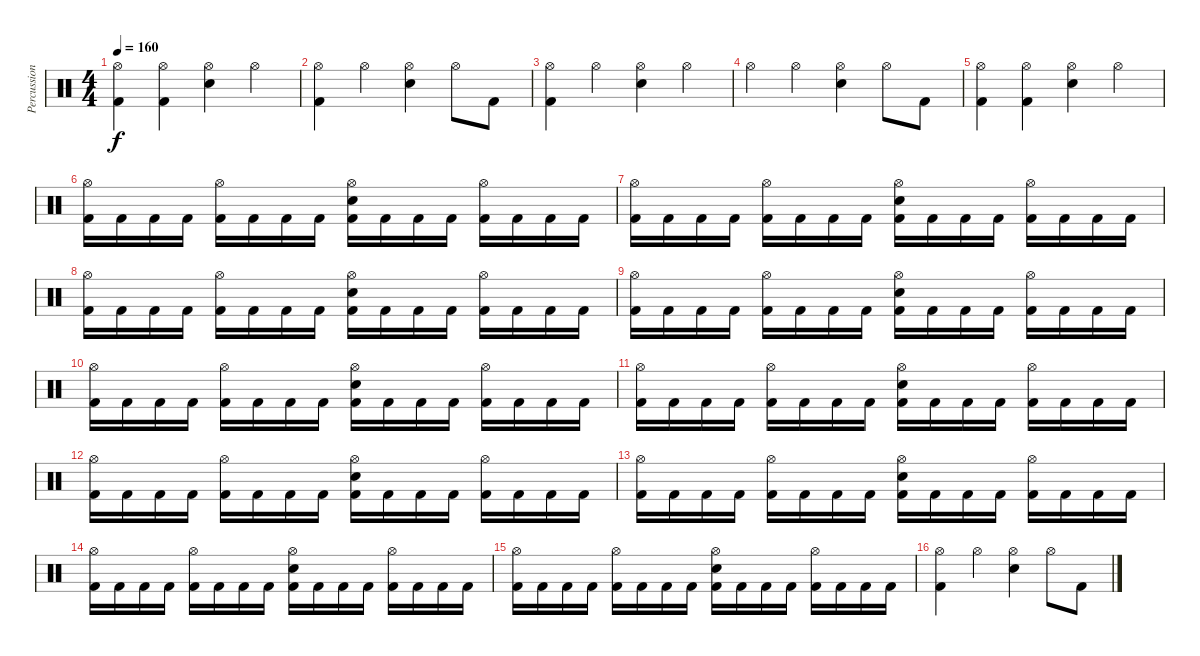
\track ("Percussion" "Percussion") {instrument percussion}
\staff {score}
\articulation defaults
\ts (4 4)
\tempo 160
\clef neutral
\ks c
("Hi-Hat (open)" "Kick (hit) 2").4{dy f} ("Hi-Hat (open)" "Kick (hit) 2").4 ("Hi-Hat (open)" "Snare (hit) 2").4 "Hi-Hat (open)".4 |
("Hi-Hat (open)" "Kick (hit) 2").4 "Hi-Hat (open)".4 ("Hi-Hat (open)" "Snare (hit) 2").4 "Hi-Hat (open)".8 "Kick (hit) 2".8 |
("Hi-Hat (open)" "Kick (hit) 2").4 "Hi-Hat (open)".4 ("Hi-Hat (open)" "Snare (hit) 2").4 "Hi-Hat (open)".4 |
"Hi-Hat (open)".4 "Hi-Hat (open)".4 ("Hi-Hat (open)" "Snare (hit) 2").4 "Hi-Hat (open)".8 "Kick (hit) 2".8 |
("Hi-Hat (open)" "Kick (hit) 2").4 ("Hi-Hat (open)" "Kick (hit) 2").4 ("Hi-Hat (open)" "Snare (hit) 2").4 "Hi-Hat (open)".4 |
("Hi-Hat (open)" "Kick (hit) 2").16 "Kick (hit) 2".16 "Kick (hit) 2".16 "Kick (hit) 2".16 ("Hi-Hat (open)" "Kick (hit) 2").16 "Kick (hit) 2".16 "Kick (hit) 2".16 "Kick (hit) 2".16 ("Hi-Hat (open)" "Kick (hit) 2" "Snare (hit) 2").16 "Kick (hit) 2".16 "Kick (hit) 2".16 "Kick (hit) 2".16 ("Hi-Hat (open)" "Kick (hit) 2").16 "Kick (hit) 2".16 "Kick (hit) 2".16 "Kick (hit) 2".16 |
("Hi-Hat (open)" "Kick (hit) 2").16 "Kick (hit) 2".16 "Kick (hit) 2".16 "Kick (hit) 2".16 ("Hi-Hat (open)" "Kick (hit) 2").16 "Kick (hit) 2".16 "Kick (hit) 2".16 "Kick (hit) 2".16 ("Hi-Hat (open)" "Kick (hit) 2" "Snare (hit) 2").16 "Kick (hit) 2".16 "Kick (hit) 2".16 "Kick (hit) 2".16 ("Hi-Hat (open)" "Kick (hit) 2").16 "Kick (hit) 2".16 "Kick (hit) 2".16 "Kick (hit) 2".16 |
("Hi-Hat (open)" "Kick (hit) 2").16 "Kick (hit) 2".16 "Kick (hit) 2".16 "Kick (hit) 2".16 ("Hi-Hat (open)" "Kick (hit) 2").16 "Kick (hit) 2".16 "Kick (hit) 2".16 "Kick (hit) 2".16 ("Hi-Hat (open)" "Kick (hit) 2" "Snare (hit) 2").16 "Kick (hit) 2".16 "Kick (hit) 2".16 "Kick (hit) 2".16 ("Hi-Hat (open)" "Kick (hit) 2").16 "Kick (hit) 2".16 "Kick (hit) 2".16 "Kick (hit) 2".16 |
("Hi-Hat (open)" "Kick (hit) 2").16 "Kick (hit) 2".16 "Kick (hit) 2".16 "Kick (hit) 2".16 ("Hi-Hat (open)" "Kick (hit) 2").16 "Kick (hit) 2".16 "Kick (hit) 2".16 "Kick (hit) 2".16 ("Hi-Hat (open)" "Kick (hit) 2" "Snare (hit) 2").16 "Kick (hit) 2".16 "Kick (hit) 2".16 "Kick (hit) 2".16 ("Hi-Hat (open)" "Kick (hit) 2").16 "Kick (hit) 2".16 "Kick (hit) 2".16 "Kick (hit) 2".16 |
("Hi-Hat (open)" "Kick (hit) 2").16 "Kick (hit) 2".16 "Kick (hit) 2".16 "Kick (hit) 2".16 ("Hi-Hat (open)" "Kick (hit) 2").16 "Kick (hit) 2".16 "Kick (hit) 2".16 "Kick (hit) 2".16 ("Hi-Hat (open)" "Kick (hit) 2" "Snare (hit) 2").16 "Kick (hit) 2".16 "Kick (hit) 2".16 "Kick (hit) 2".16 ("Hi-Hat (open)" "Kick (hit) 2").16 "Kick (hit) 2".16 "Kick (hit) 2".16 "Kick (hit) 2".16 |
("Hi-Hat (open)" "Kick (hit) 2").16 "Kick (hit) 2".16 "Kick (hit) 2".16 "Kick (hit) 2".16 ("Hi-Hat (open)" "Kick (hit) 2").16 "Kick (hit) 2".16 "Kick (hit) 2".16 "Kick (hit) 2".16 ("Hi-Hat (open)" "Kick (hit) 2" "Snare (hit) 2").16 "Kick (hit) 2".16 "Kick (hit) 2".16 "Kick (hit) 2".16 ("Hi-Hat (open)" "Kick (hit) 2").16 "Kick (hit) 2".16 "Kick (hit) 2".16 "Kick (hit) 2".16 |
("Hi-Hat (open)" "Kick (hit) 2").16 "Kick (hit) 2".16 "Kick (hit) 2".16 "Kick (hit) 2".16 ("Hi-Hat (open)" "Kick (hit) 2").16 "Kick (hit) 2".16 "Kick (hit) 2".16 "Kick (hit) 2".16 ("Hi-Hat (open)" "Kick (hit) 2" "Snare (hit) 2").16 "Kick (hit) 2".16 "Kick (hit) 2".16 "Kick (hit) 2".16 ("Hi-Hat (open)" "Kick (hit) 2").16 "Kick (hit) 2".16 "Kick (hit) 2".16 "Kick (hit) 2".16 |
("Hi-Hat (open)" "Kick (hit) 2").16 "Kick (hit) 2".16 "Kick (hit) 2".16 "Kick (hit) 2".16 ("Hi-Hat (open)" "Kick (hit) 2").16 "Kick (hit) 2".16 "Kick (hit) 2".16 "Kick (hit) 2".16 ("Hi-Hat (open)" "Kick (hit) 2" "Snare (hit) 2").16 "Kick (hit) 2".16 "Kick (hit) 2".16 "Kick (hit) 2".16 ("Hi-Hat (open)" "Kick (hit) 2").16 "Kick (hit) 2".16 "Kick (hit) 2".16 "Kick (hit) 2".16 |
("Hi-Hat (open)" "Kick (hit) 2").16 "Kick (hit) 2".16 "Kick (hit) 2".16 "Kick (hit) 2".16 ("Hi-Hat (open)" "Kick (hit) 2").16 "Kick (hit) 2".16 "Kick (hit) 2".16 "Kick (hit) 2".16 ("Hi-Hat (open)" "Kick (hit) 2" "Snare (hit) 2").16 "Kick (hit) 2".16 "Kick (hit) 2".16 "Kick (hit) 2".16 ("Hi-Hat (open)" "Kick (hit) 2").16 "Kick (hit) 2".16 "Kick (hit) 2".16 "Kick (hit) 2".16 |
("Hi-Hat (open)" "Kick (hit) 2").16 "Kick (hit) 2".16 "Kick (hit) 2".16 "Kick (hit) 2".16 ("Hi-Hat (open)" "Kick (hit) 2").16 "Kick (hit) 2".16 "Kick (hit) 2".16 "Kick (hit) 2".16 ("Hi-Hat (open)" "Kick (hit) 2" "Snare (hit) 2").16 "Kick (hit) 2".16 "Kick (hit) 2".16 "Kick (hit) 2".16 ("Hi-Hat (open)" "Kick (hit) 2").16 "Kick (hit) 2".16 "Kick (hit) 2".16 "Kick (hit) 2".16 |
("Hi-Hat (open)" "Kick (hit) 2").4 "Hi-Hat (open)".4 ("Hi-Hat (open)" "Snare (hit) 2").4 "Hi-Hat (open)".8 "Kick (hit) 2".8
